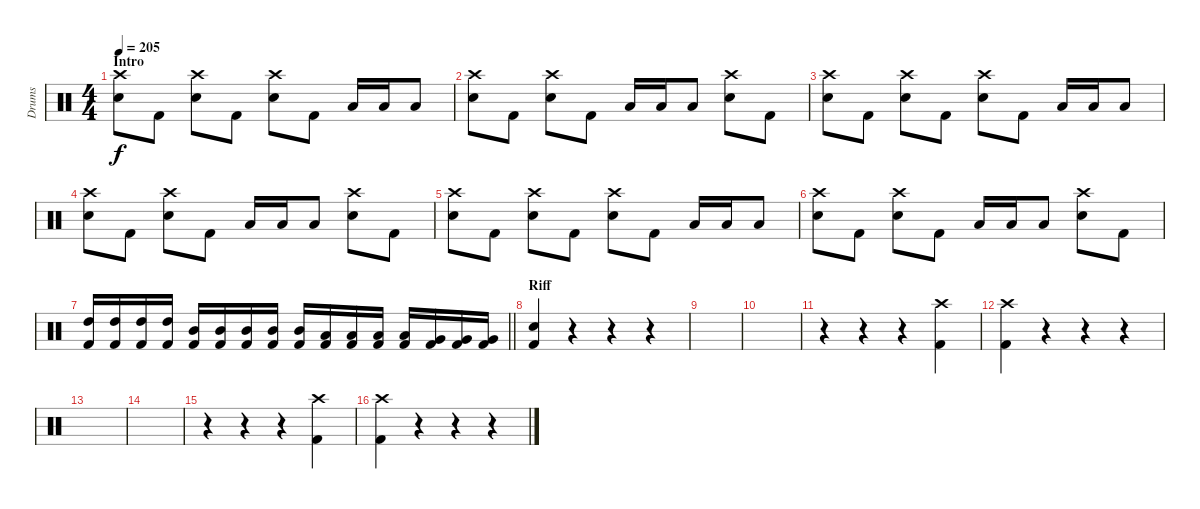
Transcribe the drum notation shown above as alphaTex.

\track ("Drums" "Drums") {instrument percussion}
\staff {score}
\articulation defaults
\ts (4 4)
\section ("" "Intro")
\tempo 205
\clef neutral
\ks c
("Crash high (hit)" "Electric Snare (hit)").8{dy f} "Kick (hit) 2".8 ("Crash high (hit)" "Electric Snare (hit)").8 "Kick (hit) 2".8 ("Crash high (hit)" "Electric Snare (hit)").8 "Kick (hit) 2".8 "Low Tom (hit)".16 "Low Tom (hit)".16 "Low Tom (hit)".8 |
("Crash high (hit)" "Electric Snare (hit)").8 "Kick (hit) 2".8 ("Crash high (hit)" "Electric Snare (hit)").8 "Kick (hit) 2".8 "Low Tom (hit)".16 "Low Tom (hit)".16 "Low Tom (hit)".8 ("Crash high (hit)" "Electric Snare (hit)").8 "Kick (hit) 2".8 |
("Crash high (hit)" "Electric Snare (hit)").8 "Kick (hit) 2".8 ("Crash high (hit)" "Electric Snare (hit)").8 "Kick (hit) 2".8 ("Crash high (hit)" "Electric Snare (hit)").8 "Kick (hit) 2".8 "Low Tom (hit)".16 "Low Tom (hit)".16 "Low Tom (hit)".8 |
("Crash high (hit)" "Electric Snare (hit)").8 "Kick (hit) 2".8 ("Crash high (hit)" "Electric Snare (hit)").8 "Kick (hit) 2".8 "Low Tom (hit)".16 "Low Tom (hit)".16 "Low Tom (hit)".8 ("Crash high (hit)" "Electric Snare (hit)").8 "Kick (hit) 2".8 |
("Crash high (hit)" "Electric Snare (hit)").8 "Kick (hit) 2".8 ("Crash high (hit)" "Electric Snare (hit)").8 "Kick (hit) 2".8 ("Crash high (hit)" "Electric Snare (hit)").8 "Kick (hit) 2".8 "Low Tom (hit)".16 "Low Tom (hit)".16 "Low Tom (hit)".8 |
("Crash high (hit)" "Electric Snare (hit)").8 "Kick (hit) 2".8 ("Crash high (hit)" "Electric Snare (hit)").8 "Kick (hit) 2".8 "Low Tom (hit)".16 "Low Tom (hit)".16 "Low Tom (hit)".8 ("Crash high (hit)" "Electric Snare (hit)").8 "Kick (hit) 2".8 |
\barLineRight lightlight
("High Tom (hit)" "Kick (hit) 2").16 ("High Tom (hit)" "Kick (hit) 2").16 ("High Tom (hit)" "Kick (hit) 2").16 ("High Tom (hit)" "Kick (hit) 2").16 ("Mid Tom (hit)" "Kick (hit) 2").16 ("Mid Tom (hit)" "Kick (hit) 2").16 ("Mid Tom (hit)" "Kick (hit) 2").16 ("Mid Tom (hit)" "Kick (hit) 2").16 ("Mid Tom (hit)" "Kick (hit) 2").16 ("Low Tom (hit)" "Kick (hit) 2").16 ("Low Tom (hit)" "Kick (hit) 2").16 ("Low Tom (hit)" "Kick (hit) 2").16 ("Low Tom (hit)" "Kick (hit) 2").16 ("Very Low Tom (hit)" "Kick (hit) 2").16 ("Very Low Tom (hit)" "Kick (hit) 2").16 ("Very Low Tom (hit)" "Kick (hit) 2").16 |
\section ("" "Riff")
("Electric Snare (hit)" "Kick (hit) 2").4 r.4 r.4 r.4 |
|
|
r.4 r.4 r.4 ("Crash high (hit)" "Kick (hit) 2").4 |
("Crash high (hit)" "Kick (hit) 2").4 r.4 r.4 r.4 |
|
|
r.4 r.4 r.4 ("Crash high (hit)" "Kick (hit) 2").4 |
("Crash high (hit)" "Kick (hit) 2").4 r.4 r.4 r.4
